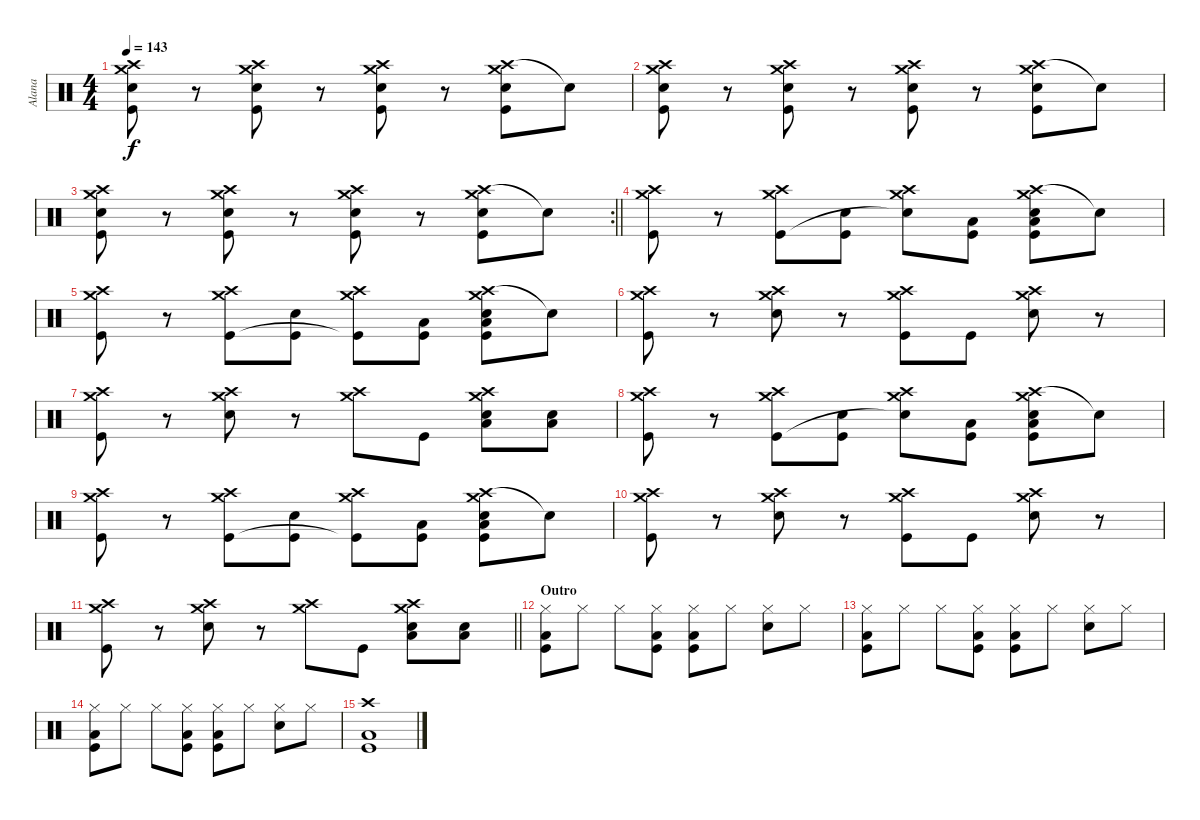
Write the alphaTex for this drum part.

\track ("Alana" "Alana") {instrument percussion}
\staff {score}
\articulation defaults
\ts (4 4)
\tempo 143
\clef neutral
\ks c
("Crash medium (hit)" "Crash high (hit)" "Electric Snare (hit)" "Kick (hit)").8{dy f} r.8 ("Crash high (hit)" "Crash medium (hit)" "Electric Snare (hit)" "Kick (hit)").8 r.8 ("Crash medium (hit)" "Crash high (hit)" "Electric Snare (hit)" "Kick (hit)").8 r.8 ("Crash high (hit)" "Crash medium (hit)" "Electric Snare (hit)" "Kick (hit)").8 "Snare (hit)"{t}.8 |
("Crash medium (hit)" "Crash high (hit)" "Electric Snare (hit)" "Kick (hit)").8 r.8 ("Crash high (hit)" "Crash medium (hit)" "Electric Snare (hit)" "Kick (hit)").8 r.8 ("Crash medium (hit)" "Crash high (hit)" "Electric Snare (hit)" "Kick (hit)").8 r.8 ("Crash high (hit)" "Crash medium (hit)" "Electric Snare (hit)" "Kick (hit)").8 "Snare (hit)"{t}.8 |
\rc 2
\barLineRight lightlight
("Crash medium (hit)" "Crash high (hit)" "Electric Snare (hit)" "Kick (hit)").8 r.8 ("Crash high (hit)" "Crash medium (hit)" "Electric Snare (hit)" "Kick (hit)").8 r.8 ("Crash medium (hit)" "Crash high (hit)" "Electric Snare (hit)" "Kick (hit)").8 r.8 ("Crash high (hit)" "Crash medium (hit)" "Electric Snare (hit)" "Kick (hit)").8 "Snare (hit)"{t}.8 |
("Crash medium (hit)" "Crash high (hit)" "Kick (hit)").8 r.8 ("Crash high (hit)" "Crash medium (hit)" "Kick (hit)").8 ("Electric Snare (hit)" "Kick (hit)").8 ("Crash medium (hit)" "Crash high (hit)" "Snare (hit)"{t}).8 ("Low Floor Tom (hit)" "Kick (hit)").8 ("Crash high (hit)" "Crash medium (hit)" "Electric Snare (hit)" "Low Floor Tom (hit)" "Kick (hit)").8 "Snare (hit)"{t}.8 |
("Crash medium (hit)" "Crash high (hit)" "Kick (hit)").8 r.8 ("Crash high (hit)" "Crash medium (hit)" "Kick (hit)").8 ("Electric Snare (hit)" "Kick (hit)").8 ("Crash medium (hit)" "Crash high (hit)" "Kick (hit)"{t}).8 ("Low Floor Tom (hit)" "Kick (hit)").8 ("Crash high (hit)" "Crash medium (hit)" "Low Floor Tom (hit)" "Electric Snare (hit)" "Kick (hit)").8 "Snare (hit)"{t}.8 |
("Crash medium (hit)" "Crash high (hit)" "Kick (hit)").8 r.8 ("Crash medium (hit)" "Crash high (hit)" "Electric Snare (hit)").8 r.8 ("Crash medium (hit)" "Crash high (hit)" "Kick (hit)").8 "Kick (hit)".8 ("Crash medium (hit)" "Crash high (hit)" "Electric Snare (hit)").8 r.8 |
("Crash medium (hit)" "Crash high (hit)" "Kick (hit)").8 r.8 ("Crash medium (hit)" "Crash high (hit)" "Electric Snare (hit)").8 r.8 ("Crash medium (hit)" "Crash high (hit)").8 "Kick (hit)".8 ("Crash medium (hit)" "Crash high (hit)" "Low Floor Tom (hit)" "Electric Snare (hit)").8 ("Low Floor Tom (hit)" "Electric Snare (hit)").8 |
("Crash medium (hit)" "Crash high (hit)" "Kick (hit)").8 r.8 ("Crash high (hit)" "Crash medium (hit)" "Kick (hit)").8 ("Electric Snare (hit)" "Kick (hit)").8 ("Crash medium (hit)" "Crash high (hit)" "Snare (hit)"{t}).8 ("Low Floor Tom (hit)" "Kick (hit)").8 ("Crash high (hit)" "Crash medium (hit)" "Electric Snare (hit)" "Low Floor Tom (hit)" "Kick (hit)").8 "Snare (hit)"{t}.8 |
("Crash medium (hit)" "Crash high (hit)" "Kick (hit)").8 r.8 ("Crash high (hit)" "Crash medium (hit)" "Kick (hit)").8 ("Electric Snare (hit)" "Kick (hit)").8 ("Crash medium (hit)" "Crash high (hit)" "Kick (hit)"{t}).8 ("Low Floor Tom (hit)" "Kick (hit)").8 ("Crash high (hit)" "Crash medium (hit)" "Low Floor Tom (hit)" "Electric Snare (hit)" "Kick (hit)").8 "Snare (hit)"{t}.8 |
("Crash medium (hit)" "Crash high (hit)" "Kick (hit)").8 r.8 ("Crash medium (hit)" "Crash high (hit)" "Electric Snare (hit)").8 r.8 ("Crash medium (hit)" "Crash high (hit)" "Kick (hit)").8 "Kick (hit)".8 ("Crash medium (hit)" "Crash high (hit)" "Electric Snare (hit)").8 r.8 |
\barLineRight lightlight
("Crash medium (hit)" "Crash high (hit)" "Kick (hit)").8 r.8 ("Crash medium (hit)" "Crash high (hit)" "Electric Snare (hit)").8 r.8 ("Crash medium (hit)" "Crash high (hit)").8 "Kick (hit)".8 ("Crash medium (hit)" "Crash high (hit)" "Low Floor Tom (hit)" "Electric Snare (hit)").8 ("Low Floor Tom (hit)" "Electric Snare (hit)").8 |
\section ("" "Outro")
("Hi-Hat (closed)" "Low Floor Tom (hit)" "Kick (hit)").8 "Hi-Hat (closed)".8 "Hi-Hat (closed)".8 ("Hi-Hat (closed)" "Low Floor Tom (hit)" "Kick (hit)").8 ("Hi-Hat (closed)" "Low Floor Tom (hit)" "Kick (hit)").8 "Hi-Hat (closed)".8 ("Hi-Hat (closed)" "Electric Snare (hit)").8 "Hi-Hat (closed)".8 |
("Hi-Hat (closed)" "Low Floor Tom (hit)" "Kick (hit)").8 "Hi-Hat (closed)".8 "Hi-Hat (closed)".8 ("Hi-Hat (closed)" "Low Floor Tom (hit)" "Kick (hit)").8 ("Hi-Hat (closed)" "Low Floor Tom (hit)" "Kick (hit)").8 "Hi-Hat (closed)".8 ("Hi-Hat (closed)" "Electric Snare (hit)").8 "Hi-Hat (closed)".8 |
("Hi-Hat (closed)" "Low Floor Tom (hit)" "Kick (hit)").8 "Hi-Hat (closed)".8 "Hi-Hat (closed)".8 ("Hi-Hat (closed)" "Low Floor Tom (hit)" "Kick (hit)").8 ("Hi-Hat (closed)" "Low Floor Tom (hit)" "Kick (hit)").8 "Hi-Hat (closed)".8 ("Hi-Hat (closed)" "Electric Snare (hit)").8 "Hi-Hat (closed)".8 |
("Crash high (hit)" "Low Floor Tom (hit)" "Kick (hit)").1
